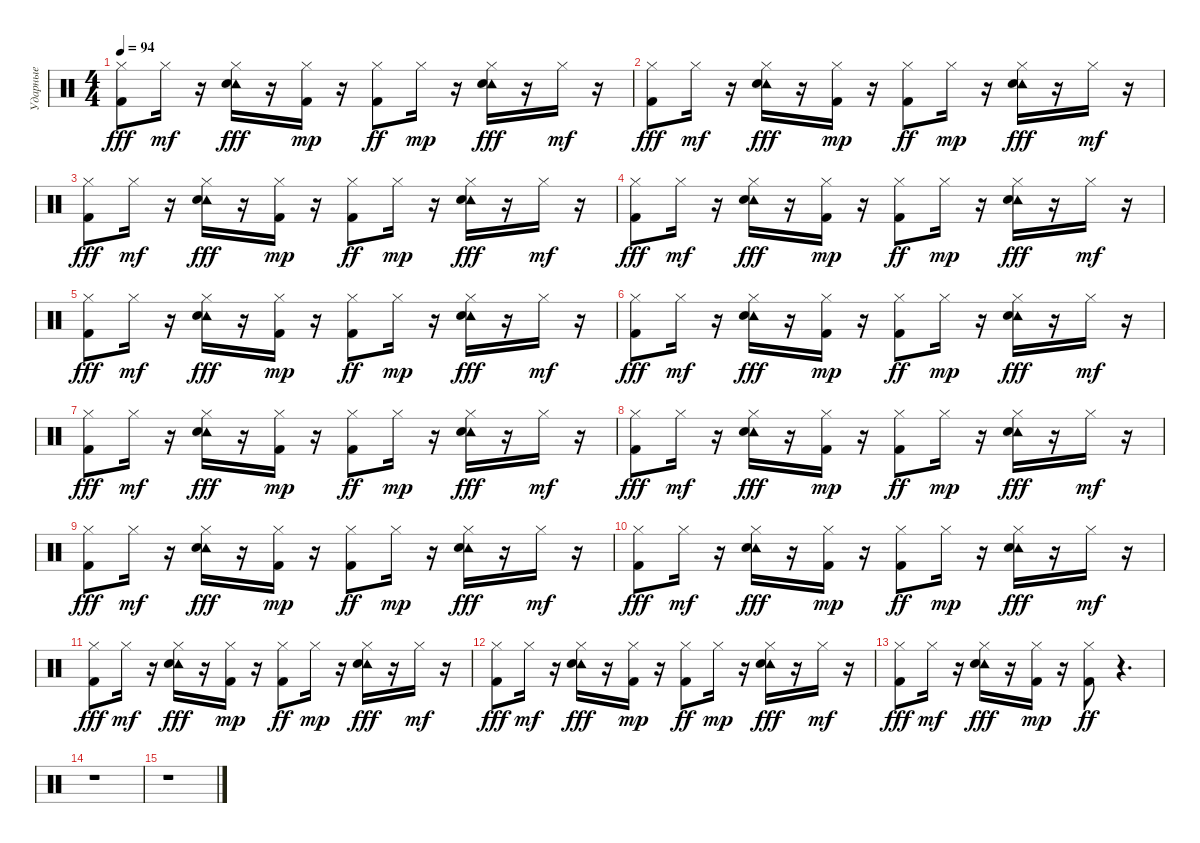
\track ("Ударные" "Ударные") {instrument percussion}
\staff {score}
\articulation defaults
\ts (4 4)
\tempo 94
\clef neutral
\ks c
("Kick (hit) 2" "Hi-Hat (closed)").8{dy fff} "Hi-Hat (closed)".16{dy mf} r.16 ("Tambourine (hit)" "Hi-Hat (closed)" "Snare (hit) 2").16{dy fff} r.16 ("Kick (hit) 2" "Hi-Hat (closed)").16{dy mp} r.16 ("Kick (hit) 2" "Hi-Hat (closed)").8{dy ff} "Hi-Hat (closed)".16{dy mp} r.16 ("Tambourine (hit)" "Hi-Hat (closed)" "Snare (hit) 2").16{dy fff} r.16 "Hi-Hat (closed)".16{dy mf} r.16 |
("Kick (hit) 2" "Hi-Hat (closed)").8{dy fff} "Hi-Hat (closed)".16{dy mf} r.16 ("Tambourine (hit)" "Hi-Hat (closed)" "Snare (hit) 2").16{dy fff} r.16 ("Kick (hit) 2" "Hi-Hat (closed)").16{dy mp} r.16 ("Kick (hit) 2" "Hi-Hat (closed)").8{dy ff} "Hi-Hat (closed)".16{dy mp} r.16 ("Tambourine (hit)" "Hi-Hat (closed)" "Snare (hit) 2").16{dy fff} r.16 "Hi-Hat (closed)".16{dy mf} r.16 |
("Kick (hit) 2" "Hi-Hat (closed)").8{dy fff} "Hi-Hat (closed)".16{dy mf} r.16 ("Tambourine (hit)" "Hi-Hat (closed)" "Snare (hit) 2").16{dy fff} r.16 ("Kick (hit) 2" "Hi-Hat (closed)").16{dy mp} r.16 ("Kick (hit) 2" "Hi-Hat (closed)").8{dy ff} "Hi-Hat (closed)".16{dy mp} r.16 ("Tambourine (hit)" "Hi-Hat (closed)" "Snare (hit) 2").16{dy fff} r.16 "Hi-Hat (closed)".16{dy mf} r.16 |
("Kick (hit) 2" "Hi-Hat (closed)").8{dy fff} "Hi-Hat (closed)".16{dy mf} r.16 ("Tambourine (hit)" "Hi-Hat (closed)" "Snare (hit) 2").16{dy fff} r.16 ("Kick (hit) 2" "Hi-Hat (closed)").16{dy mp} r.16 ("Kick (hit) 2" "Hi-Hat (closed)").8{dy ff} "Hi-Hat (closed)".16{dy mp} r.16 ("Tambourine (hit)" "Hi-Hat (closed)" "Snare (hit) 2").16{dy fff} r.16 "Hi-Hat (closed)".16{dy mf} r.16 |
("Kick (hit) 2" "Hi-Hat (closed)").8{dy fff} "Hi-Hat (closed)".16{dy mf} r.16 ("Tambourine (hit)" "Hi-Hat (closed)" "Snare (hit) 2").16{dy fff} r.16 ("Kick (hit) 2" "Hi-Hat (closed)").16{dy mp} r.16 ("Kick (hit) 2" "Hi-Hat (closed)").8{dy ff} "Hi-Hat (closed)".16{dy mp} r.16 ("Tambourine (hit)" "Hi-Hat (closed)" "Snare (hit) 2").16{dy fff} r.16 "Hi-Hat (closed)".16{dy mf} r.16 |
("Kick (hit) 2" "Hi-Hat (closed)").8{dy fff} "Hi-Hat (closed)".16{dy mf} r.16 ("Tambourine (hit)" "Hi-Hat (closed)" "Snare (hit) 2").16{dy fff} r.16 ("Kick (hit) 2" "Hi-Hat (closed)").16{dy mp} r.16 ("Kick (hit) 2" "Hi-Hat (closed)").8{dy ff} "Hi-Hat (closed)".16{dy mp} r.16 ("Tambourine (hit)" "Hi-Hat (closed)" "Snare (hit) 2").16{dy fff} r.16 "Hi-Hat (closed)".16{dy mf} r.16 |
("Kick (hit) 2" "Hi-Hat (closed)").8{dy fff} "Hi-Hat (closed)".16{dy mf} r.16 ("Tambourine (hit)" "Hi-Hat (closed)" "Snare (hit) 2").16{dy fff} r.16 ("Kick (hit) 2" "Hi-Hat (closed)").16{dy mp} r.16 ("Kick (hit) 2" "Hi-Hat (closed)").8{dy ff} "Hi-Hat (closed)".16{dy mp} r.16 ("Tambourine (hit)" "Hi-Hat (closed)" "Snare (hit) 2").16{dy fff} r.16 "Hi-Hat (closed)".16{dy mf} r.16 |
("Kick (hit) 2" "Hi-Hat (closed)").8{dy fff} "Hi-Hat (closed)".16{dy mf} r.16 ("Tambourine (hit)" "Hi-Hat (closed)" "Snare (hit) 2").16{dy fff} r.16 ("Kick (hit) 2" "Hi-Hat (closed)").16{dy mp} r.16 ("Kick (hit) 2" "Hi-Hat (closed)").8{dy ff} "Hi-Hat (closed)".16{dy mp} r.16 ("Tambourine (hit)" "Hi-Hat (closed)" "Snare (hit) 2").16{dy fff} r.16 "Hi-Hat (closed)".16{dy mf} r.16 |
("Kick (hit) 2" "Hi-Hat (closed)").8{dy fff} "Hi-Hat (closed)".16{dy mf} r.16 ("Tambourine (hit)" "Hi-Hat (closed)" "Snare (hit) 2").16{dy fff} r.16 ("Kick (hit) 2" "Hi-Hat (closed)").16{dy mp} r.16 ("Kick (hit) 2" "Hi-Hat (closed)").8{dy ff} "Hi-Hat (closed)".16{dy mp} r.16 ("Tambourine (hit)" "Hi-Hat (closed)" "Snare (hit) 2").16{dy fff} r.16 "Hi-Hat (closed)".16{dy mf} r.16 |
("Kick (hit) 2" "Hi-Hat (closed)").8{dy fff} "Hi-Hat (closed)".16{dy mf} r.16 ("Tambourine (hit)" "Hi-Hat (closed)" "Snare (hit) 2").16{dy fff} r.16 ("Kick (hit) 2" "Hi-Hat (closed)").16{dy mp} r.16 ("Kick (hit) 2" "Hi-Hat (closed)").8{dy ff} "Hi-Hat (closed)".16{dy mp} r.16 ("Tambourine (hit)" "Hi-Hat (closed)" "Snare (hit) 2").16{dy fff} r.16 "Hi-Hat (closed)".16{dy mf} r.16 |
("Kick (hit) 2" "Hi-Hat (closed)").8{dy fff} "Hi-Hat (closed)".16{dy mf} r.16 ("Tambourine (hit)" "Hi-Hat (closed)" "Snare (hit) 2").16{dy fff} r.16 ("Kick (hit) 2" "Hi-Hat (closed)").16{dy mp} r.16 ("Kick (hit) 2" "Hi-Hat (closed)").8{dy ff} "Hi-Hat (closed)".16{dy mp} r.16 ("Tambourine (hit)" "Hi-Hat (closed)" "Snare (hit) 2").16{dy fff} r.16 "Hi-Hat (closed)".16{dy mf} r.16 |
("Kick (hit) 2" "Hi-Hat (closed)").8{dy fff} "Hi-Hat (closed)".16{dy mf} r.16 ("Tambourine (hit)" "Hi-Hat (closed)" "Snare (hit) 2").16{dy fff} r.16 ("Kick (hit) 2" "Hi-Hat (closed)").16{dy mp} r.16 ("Kick (hit) 2" "Hi-Hat (closed)").8{dy ff} "Hi-Hat (closed)".16{dy mp} r.16 ("Tambourine (hit)" "Hi-Hat (closed)" "Snare (hit) 2").16{dy fff} r.16 "Hi-Hat (closed)".16{dy mf} r.16 |
("Kick (hit) 2" "Hi-Hat (closed)").8{dy fff} "Hi-Hat (closed)".16{dy mf} r.16 ("Tambourine (hit)" "Hi-Hat (closed)" "Snare (hit) 2").16{dy fff} r.16 ("Kick (hit) 2" "Hi-Hat (closed)").16{dy mp} r.16 ("Kick (hit) 2" "Hi-Hat (closed)").8{dy ff} r.4{d} |
r.1 |
r.1
